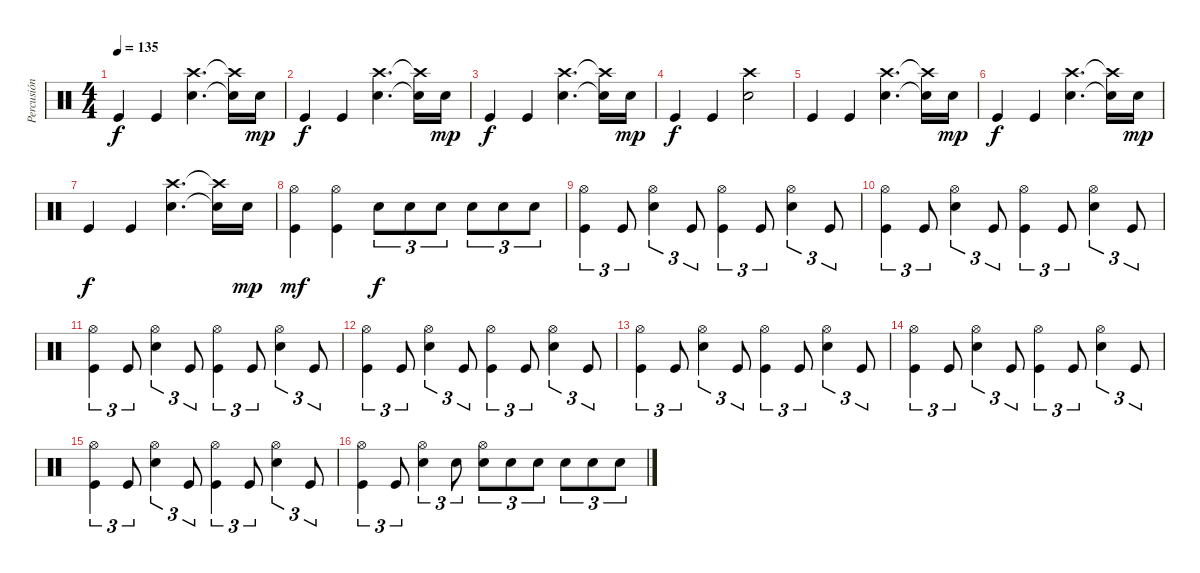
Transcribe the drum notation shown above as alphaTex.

\track ("Percusión" "Percusión") {instrument percussion}
\staff {score}
\articulation defaults
\ts (4 4)
\tempo 135
\clef neutral
\ks c "Kick (hit)".4{dy f} "Kick (hit)".4
("Crash high (hit)" "Snare (hit) 2").4{d} ("Crash high (hit)"{t} "Snare (hit) 2"{t}).16 "Snare (hit) 2".16{dy mp} |
"Kick (hit)".4{dy f} "Kick (hit)".4 ("Crash high (hit)" "Snare (hit) 2").4{d} ("Crash high (hit)"{t} "Snare (hit) 2"{t}).16 "Snare (hit) 2".16{dy mp} |
"Kick (hit)".4{dy f} "Kick (hit)".4 ("Crash high (hit)" "Snare (hit) 2").4{d} ("Crash high (hit)"{t} "Snare (hit) 2"{t}).16 "Snare (hit) 2".16{dy mp} |
"Kick (hit)".4{dy f} "Kick (hit)".4 ("Crash high (hit)" "Snare (hit) 2").2 |
"Kick (hit)".4 "Kick (hit)".4 ("Crash high (hit)" "Snare (hit) 2").4{d} ("Crash high (hit)"{t} "Snare (hit) 2"{t}).16 "Snare (hit) 2".16{dy mp} |
"Kick (hit)".4{dy f} "Kick (hit)".4 ("Crash high (hit)" "Snare (hit) 2").4{d} ("Crash high (hit)"{t} "Snare (hit) 2"{t}).16 "Snare (hit) 2".16{dy mp} |
"Kick (hit)".4{dy f} "Kick (hit)".4 ("Crash high (hit)" "Snare (hit) 2").4{d} ("Crash high (hit)"{t} "Snare (hit) 2"{t}).16 "Snare (hit) 2".16{dy mp} |
("Hi-Hat (open)" "Kick (hit)").4{dy mf} ("Hi-Hat (open)" "Kick (hit)").4 "Snare (hit) 2".8{tu (3 2) dy f} "Snare (hit) 2".8{tu (3 2)} "Snare (hit) 2".8{tu (3 2)} "Snare (hit) 2".8{tu (3 2)} "Snare (hit) 2".8{tu (3 2)} "Snare (hit) 2".8{tu (3 2)} |
("Hi-Hat (open)" "Kick (hit)").4{tu (3 2)} "Kick (hit)".8{tu (3 2)} ("Hi-Hat (open)" "Snare (hit) 2").4{tu (3 2)} "Kick (hit)".8{tu (3 2)} ("Hi-Hat (open)" "Kick (hit)").4{tu (3 2)} "Kick (hit)".8{tu (3 2)} ("Hi-Hat (open)" "Snare (hit) 2").4{tu (3 2)} "Kick (hit)".8{tu (3 2)} |
("Hi-Hat (open)" "Kick (hit)").4{tu (3 2)} "Kick (hit)".8{tu (3 2)} ("Hi-Hat (open)" "Snare (hit) 2").4{tu (3 2)} "Kick (hit)".8{tu (3 2)} ("Hi-Hat (open)" "Kick (hit)").4{tu (3 2)} "Kick (hit)".8{tu (3 2)} ("Hi-Hat (open)" "Snare (hit) 2").4{tu (3 2)} "Kick (hit)".8{tu (3 2)} |
("Hi-Hat (open)" "Kick (hit)").4{tu (3 2)} "Kick (hit)".8{tu (3 2)} ("Hi-Hat (open)" "Snare (hit) 2").4{tu (3 2)} "Kick (hit)".8{tu (3 2)} ("Hi-Hat (open)" "Kick (hit)").4{tu (3 2)} "Kick (hit)".8{tu (3 2)} ("Hi-Hat (open)" "Snare (hit) 2").4{tu (3 2)} "Kick (hit)".8{tu (3 2)} |
("Hi-Hat (open)" "Kick (hit)").4{tu (3 2)} "Kick (hit)".8{tu (3 2)} ("Hi-Hat (open)" "Snare (hit) 2").4{tu (3 2)} "Kick (hit)".8{tu (3 2)} ("Hi-Hat (open)" "Kick (hit)").4{tu (3 2)} "Kick (hit)".8{tu (3 2)} ("Hi-Hat (open)" "Snare (hit) 2").4{tu (3 2)} "Kick (hit)".8{tu (3 2)} |
("Hi-Hat (open)" "Kick (hit)").4{tu (3 2)} "Kick (hit)".8{tu (3 2)} ("Hi-Hat (open)" "Snare (hit) 2").4{tu (3 2)} "Kick (hit)".8{tu (3 2)} ("Hi-Hat (open)" "Kick (hit)").4{tu (3 2)} "Kick (hit)".8{tu (3 2)} ("Hi-Hat (open)" "Snare (hit) 2").4{tu (3 2)} "Kick (hit)".8{tu (3 2)} |
("Hi-Hat (open)" "Kick (hit)").4{tu (3 2)} "Kick (hit)".8{tu (3 2)} ("Hi-Hat (open)" "Snare (hit) 2").4{tu (3 2)} "Kick (hit)".8{tu (3 2)} ("Hi-Hat (open)" "Kick (hit)").4{tu (3 2)} "Kick (hit)".8{tu (3 2)} ("Hi-Hat (open)" "Snare (hit) 2").4{tu (3 2)} "Kick (hit)".8{tu (3 2)} |
("Hi-Hat (open)" "Kick (hit)").4{tu (3 2)} "Kick (hit)".8{tu (3 2)} ("Hi-Hat (open)" "Snare (hit) 2").4{tu (3 2)} "Kick (hit)".8{tu (3 2)} ("Hi-Hat (open)" "Kick (hit)").4{tu (3 2)} "Kick (hit)".8{tu (3 2)} ("Hi-Hat (open)" "Snare (hit) 2").4{tu (3 2)} "Kick (hit)".8{tu (3 2)} |
("Hi-Hat (open)" "Kick (hit)").4{tu (3 2)} "Kick (hit)".8{tu (3 2)} ("Hi-Hat (open)" "Snare (hit) 2").4{tu (3 2)} "Snare (hit) 2".8{tu (3 2)} ("Hi-Hat (open)" "Snare (hit) 2").8{tu (3 2)} "Snare (hit) 2".8{tu (3 2)} "Snare (hit) 2".8{tu (3 2)} "Snare (hit) 2".8{tu (3 2)} "Snare (hit) 2".8{tu (3 2)} "Snare (hit) 2".8{tu (3 2)}
